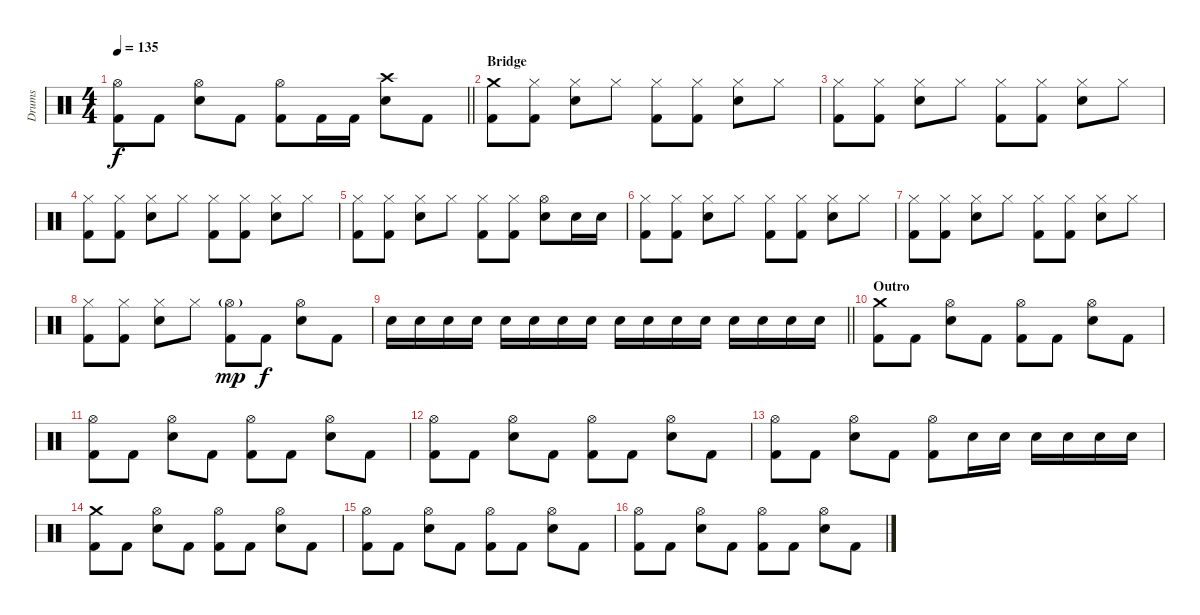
\track ("Drums" "Drums") {instrument percussion}
\staff {score}
\articulation defaults
\ts (4 4)
\tempo 135
\clef neutral
\barLineRight lightlight
\ks c
("Hi-Hat (open)" "Kick (hit) 2").8{dy f} "Kick (hit) 2".8 ("Hi-Hat (open)" "Electric Snare (hit)").8 "Kick (hit) 2".8 ("Hi-Hat (open)" "Kick (hit) 2").8 "Kick (hit) 2".16 "Kick (hit) 2".16 ("Crash high (hit)" "Electric Snare (hit)").8 "Kick (hit) 2".8 |
\section ("" "Bridge")
("Crash medium (hit)" "Kick (hit) 2").8 ("Hi-Hat (closed)" "Kick (hit) 2").8 ("Hi-Hat (closed)" "Electric Snare (hit)").8 "Hi-Hat (closed)".8 ("Hi-Hat (closed)" "Kick (hit) 2").8 ("Hi-Hat (closed)" "Kick (hit) 2").8 ("Hi-Hat (closed)" "Electric Snare (hit)").8 "Hi-Hat (closed)".8 |
("Hi-Hat (closed)" "Kick (hit) 2").8 ("Hi-Hat (closed)" "Kick (hit) 2").8 ("Hi-Hat (closed)" "Electric Snare (hit)").8 "Hi-Hat (closed)".8 ("Hi-Hat (closed)" "Kick (hit) 2").8 ("Hi-Hat (closed)" "Kick (hit) 2").8 ("Hi-Hat (closed)" "Electric Snare (hit)").8 "Hi-Hat (closed)".8 |
("Hi-Hat (closed)" "Kick (hit) 2").8 ("Hi-Hat (closed)" "Kick (hit) 2").8 ("Hi-Hat (closed)" "Electric Snare (hit)").8 "Hi-Hat (closed)".8 ("Hi-Hat (closed)" "Kick (hit) 2").8 ("Hi-Hat (closed)" "Kick (hit) 2").8 ("Hi-Hat (closed)" "Electric Snare (hit)").8 "Hi-Hat (closed)".8 |
("Hi-Hat (closed)" "Kick (hit) 2").8 ("Hi-Hat (closed)" "Kick (hit) 2").8 ("Hi-Hat (closed)" "Electric Snare (hit)").8 "Hi-Hat (closed)".8 ("Hi-Hat (closed)" "Kick (hit) 2").8 ("Hi-Hat (closed)" "Kick (hit) 2").8 ("Hi-Hat (open)" "Electric Snare (hit)").8 "Electric Snare (hit)".16 "Electric Snare (hit)".16 |
("Hi-Hat (closed)" "Kick (hit) 2").8 ("Hi-Hat (closed)" "Kick (hit) 2").8 ("Hi-Hat (closed)" "Electric Snare (hit)").8 "Hi-Hat (closed)".8 ("Hi-Hat (closed)" "Kick (hit) 2").8 ("Hi-Hat (closed)" "Kick (hit) 2").8 ("Hi-Hat (closed)" "Electric Snare (hit)").8 "Hi-Hat (closed)".8 |
("Hi-Hat (closed)" "Kick (hit) 2").8 ("Hi-Hat (closed)" "Kick (hit) 2").8 ("Hi-Hat (closed)" "Electric Snare (hit)").8 "Hi-Hat (closed)".8 ("Hi-Hat (closed)" "Kick (hit) 2").8 ("Hi-Hat (closed)" "Kick (hit) 2").8 ("Hi-Hat (closed)" "Electric Snare (hit)").8 "Hi-Hat (closed)".8 |
("Hi-Hat (closed)" "Kick (hit) 2").8 ("Hi-Hat (closed)" "Kick (hit) 2").8 ("Hi-Hat (closed)" "Electric Snare (hit)").8 "Hi-Hat (closed)".8 ("Hi-Hat (open)"{g} "Kick (hit) 2").8{dy mp} "Kick (hit) 2".8{dy f} ("Hi-Hat (open)" "Electric Snare (hit)").8 "Kick (hit) 2".8 |
\barLineRight lightlight "Electric Snare (hit)".16 "Electric Snare (hit)".16 "Electric Snare (hit)".16 "Electric Snare (hit)".16 "Electric Snare (hit)".16 "Electric Snare (hit)".16 "Electric Snare (hit)".16 "Electric Snare (hit)".16 "Electric Snare (hit)".16 "Electric Snare (hit)".16 "Electric Snare (hit)".16 "Electric Snare (hit)".16 "Electric Snare (hit)".16 "Electric Snare (hit)".16 "Electric Snare (hit)".16 "Electric Snare (hit)".16
|
\section ("" "Outro")
("Crash medium (hit)" "Kick (hit) 2").8 "Kick (hit) 2".8 ("Hi-Hat (open)" "Electric Snare (hit)").8 "Kick (hit) 2".8 ("Hi-Hat (open)" "Kick (hit) 2").8 "Kick (hit) 2".8 ("Hi-Hat (open)" "Electric Snare (hit)").8 "Kick (hit) 2".8 |
("Hi-Hat (open)" "Kick (hit) 2").8 "Kick (hit) 2".8 ("Hi-Hat (open)" "Electric Snare (hit)").8 "Kick (hit) 2".8 ("Hi-Hat (open)" "Kick (hit) 2").8 "Kick (hit) 2".8 ("Hi-Hat (open)" "Electric Snare (hit)").8 "Kick (hit) 2".8 |
("Hi-Hat (open)" "Kick (hit) 2").8 "Kick (hit) 2".8 ("Hi-Hat (open)" "Electric Snare (hit)").8 "Kick (hit) 2".8 ("Hi-Hat (open)" "Kick (hit) 2").8 "Kick (hit) 2".8 ("Hi-Hat (open)" "Electric Snare (hit)").8 "Kick (hit) 2".8 |
("Hi-Hat (open)" "Kick (hit) 2").8 "Kick (hit) 2".8 ("Hi-Hat (open)" "Electric Snare (hit)").8 "Kick (hit) 2".8 ("Hi-Hat (open)" "Kick (hit) 2").8 "Electric Snare (hit)".16 "Electric Snare (hit)".16 "Electric Snare (hit)".16 "Electric Snare (hit)".16 "Electric Snare (hit)".16 "Electric Snare (hit)".16 |
("Crash medium (hit)" "Kick (hit) 2").8 "Kick (hit) 2".8 ("Hi-Hat (open)" "Electric Snare (hit)").8 "Kick (hit) 2".8 ("Hi-Hat (open)" "Kick (hit) 2").8 "Kick (hit) 2".8 ("Hi-Hat (open)" "Electric Snare (hit)").8 "Kick (hit) 2".8 |
("Hi-Hat (open)" "Kick (hit) 2").8 "Kick (hit) 2".8 ("Hi-Hat (open)" "Electric Snare (hit)").8 "Kick (hit) 2".8 ("Hi-Hat (open)" "Kick (hit) 2").8 "Kick (hit) 2".8 ("Hi-Hat (open)" "Electric Snare (hit)").8 "Kick (hit) 2".8 |
("Hi-Hat (open)" "Kick (hit) 2").8 "Kick (hit) 2".8 ("Hi-Hat (open)" "Electric Snare (hit)").8 "Kick (hit) 2".8 ("Hi-Hat (open)" "Kick (hit) 2").8 "Kick (hit) 2".8 ("Hi-Hat (open)" "Electric Snare (hit)").8 "Kick (hit) 2".8
